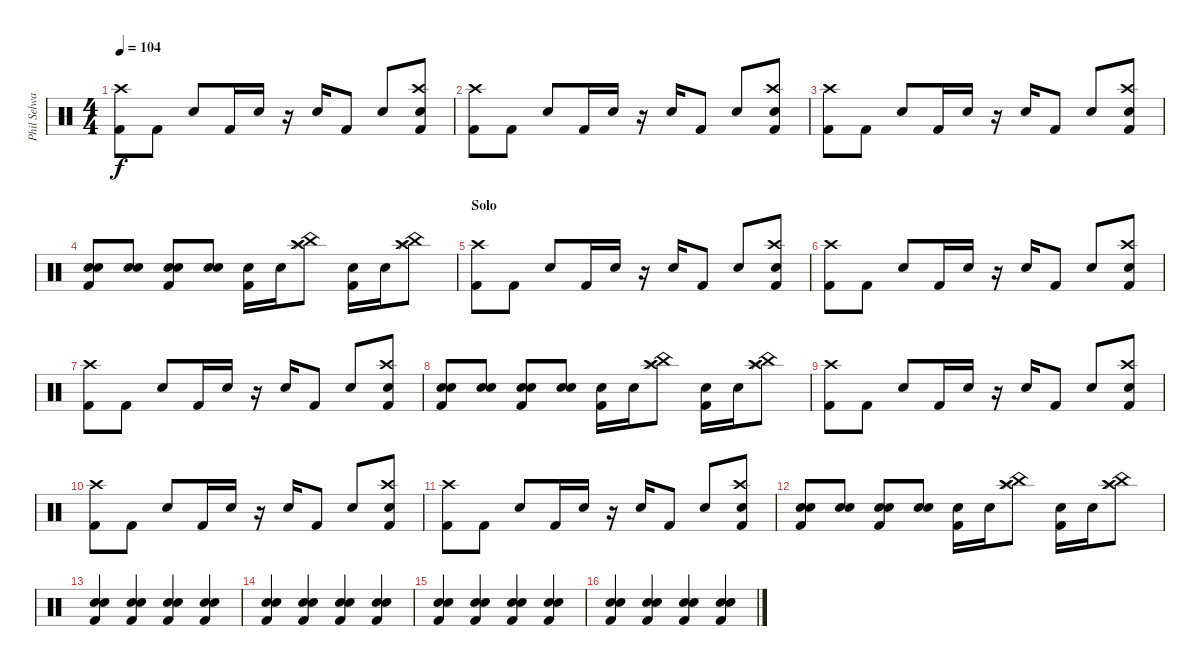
\track ("Phil Selway" "Phil Selwa") {instrument percussion}
\staff {score}
\articulation defaults
\ts (4 4)
\tempo 104
\clef neutral
\ks c
("Kick (hit) 2" "Crash high (hit)").8{dy f} "Kick (hit) 2".8 "Electric Snare (hit)".8 "Kick (hit) 2".16 "Electric Snare (hit)".16 r.16 "Electric Snare (hit)".16 "Kick (hit) 2".8 "Electric Snare (hit)".8 ("Kick (hit) 2" "Crash high (hit)" "Electric Snare (hit)").8 |
("Kick (hit) 2" "Crash high (hit)").8 "Kick (hit) 2".8 "Electric Snare (hit)".8 "Kick (hit) 2".16 "Electric Snare (hit)".16 r.16 "Electric Snare (hit)".16 "Kick (hit) 2".8 "Electric Snare (hit)".8 ("Kick (hit) 2" "Crash high (hit)" "Electric Snare (hit)").8 |
("Kick (hit) 2" "Crash high (hit)").8 "Kick (hit) 2".8 "Electric Snare (hit)".8 "Kick (hit) 2".16 "Electric Snare (hit)".16 r.16 "Electric Snare (hit)".16 "Kick (hit) 2".8 "Electric Snare (hit)".8 ("Kick (hit) 2" "Crash high (hit)" "Electric Snare (hit)").8 |
("Electric Snare (hit)" "Snare (hit) 2" "Kick (hit) 2").8 ("Electric Snare (hit)" "Snare (hit) 2").8 ("Electric Snare (hit)" "Snare (hit) 2" "Kick (hit) 2").8 ("Electric Snare (hit)" "Snare (hit) 2").8 ("Electric Snare (hit)" "Kick (hit) 2").16 "Electric Snare (hit)".16 ("Splash (hit)" "China (hit)" "Crash high (hit)").8 ("Electric Snare (hit)" "Kick (hit) 2").16 "Electric Snare (hit)".16 ("Splash (hit)" "China (hit)" "Crash high (hit)").8 |
\section ("" "Solo")
("Kick (hit) 2" "Crash high (hit)").8 "Kick (hit) 2".8 "Electric Snare (hit)".8 "Kick (hit) 2".16 "Electric Snare (hit)".16 r.16 "Electric Snare (hit)".16 "Kick (hit) 2".8 "Electric Snare (hit)".8 ("Kick (hit) 2" "Crash high (hit)" "Electric Snare (hit)").8 |
("Kick (hit) 2" "Crash high (hit)").8 "Kick (hit) 2".8 "Electric Snare (hit)".8 "Kick (hit) 2".16 "Electric Snare (hit)".16 r.16 "Electric Snare (hit)".16 "Kick (hit) 2".8 "Electric Snare (hit)".8 ("Kick (hit) 2" "Crash high (hit)" "Electric Snare (hit)").8 |
("Kick (hit) 2" "Crash high (hit)").8 "Kick (hit) 2".8 "Electric Snare (hit)".8 "Kick (hit) 2".16 "Electric Snare (hit)".16 r.16 "Electric Snare (hit)".16 "Kick (hit) 2".8 "Electric Snare (hit)".8 ("Kick (hit) 2" "Crash high (hit)" "Electric Snare (hit)").8 |
("Electric Snare (hit)" "Snare (hit) 2" "Kick (hit) 2").8 ("Electric Snare (hit)" "Snare (hit) 2").8 ("Electric Snare (hit)" "Snare (hit) 2" "Kick (hit) 2").8 ("Electric Snare (hit)" "Snare (hit) 2").8 ("Electric Snare (hit)" "Kick (hit) 2").16 "Electric Snare (hit)".16 ("Splash (hit)" "China (hit)" "Crash high (hit)").8 ("Electric Snare (hit)" "Kick (hit) 2").16 "Electric Snare (hit)".16 ("Splash (hit)" "China (hit)" "Crash high (hit)").8 |
("Kick (hit) 2" "Crash high (hit)").8 "Kick (hit) 2".8 "Electric Snare (hit)".8 "Kick (hit) 2".16 "Electric Snare (hit)".16 r.16 "Electric Snare (hit)".16 "Kick (hit) 2".8 "Electric Snare (hit)".8 ("Kick (hit) 2" "Crash high (hit)" "Electric Snare (hit)").8 |
("Kick (hit) 2" "Crash high (hit)").8 "Kick (hit) 2".8 "Electric Snare (hit)".8 "Kick (hit) 2".16 "Electric Snare (hit)".16 r.16 "Electric Snare (hit)".16 "Kick (hit) 2".8 "Electric Snare (hit)".8 ("Kick (hit) 2" "Crash high (hit)" "Electric Snare (hit)").8 |
("Kick (hit) 2" "Crash high (hit)").8 "Kick (hit) 2".8 "Electric Snare (hit)".8 "Kick (hit) 2".16 "Electric Snare (hit)".16 r.16 "Electric Snare (hit)".16 "Kick (hit) 2".8 "Electric Snare (hit)".8 ("Kick (hit) 2" "Crash high (hit)" "Electric Snare (hit)").8 |
("Electric Snare (hit)" "Snare (hit) 2" "Kick (hit) 2").8 ("Electric Snare (hit)" "Snare (hit) 2").8 ("Electric Snare (hit)" "Snare (hit) 2" "Kick (hit) 2").8 ("Electric Snare (hit)" "Snare (hit) 2").8 ("Electric Snare (hit)" "Kick (hit) 2").16 "Electric Snare (hit)".16 ("Splash (hit)" "China (hit)" "Crash high (hit)").8 ("Electric Snare (hit)" "Kick (hit) 2").16 "Electric Snare (hit)".16 ("Splash (hit)" "China (hit)" "Crash high (hit)").8 |
("Kick (hit) 2" "Hand Clap (hit)" "Snare (hit) 2").4 ("Kick (hit) 2" "Hand Clap (hit)" "Snare (hit) 2").4 ("Kick (hit) 2" "Hand Clap (hit)" "Snare (hit) 2").4 ("Kick (hit) 2" "Hand Clap (hit)" "Snare (hit) 2").4 |
("Kick (hit) 2" "Hand Clap (hit)" "Snare (hit) 2").4 ("Kick (hit) 2" "Hand Clap (hit)" "Snare (hit) 2").4 ("Kick (hit) 2" "Hand Clap (hit)" "Snare (hit) 2").4 ("Kick (hit) 2" "Hand Clap (hit)" "Snare (hit) 2").4 |
("Kick (hit) 2" "Hand Clap (hit)" "Snare (hit) 2").4 ("Kick (hit) 2" "Hand Clap (hit)" "Snare (hit) 2").4 ("Kick (hit) 2" "Hand Clap (hit)" "Snare (hit) 2").4 ("Kick (hit) 2" "Hand Clap (hit)" "Snare (hit) 2").4 |
("Kick (hit) 2" "Hand Clap (hit)" "Snare (hit) 2").4 ("Kick (hit) 2" "Hand Clap (hit)" "Snare (hit) 2").4 ("Kick (hit) 2" "Hand Clap (hit)" "Snare (hit) 2").4 ("Kick (hit) 2" "Hand Clap (hit)" "Snare (hit) 2").4
